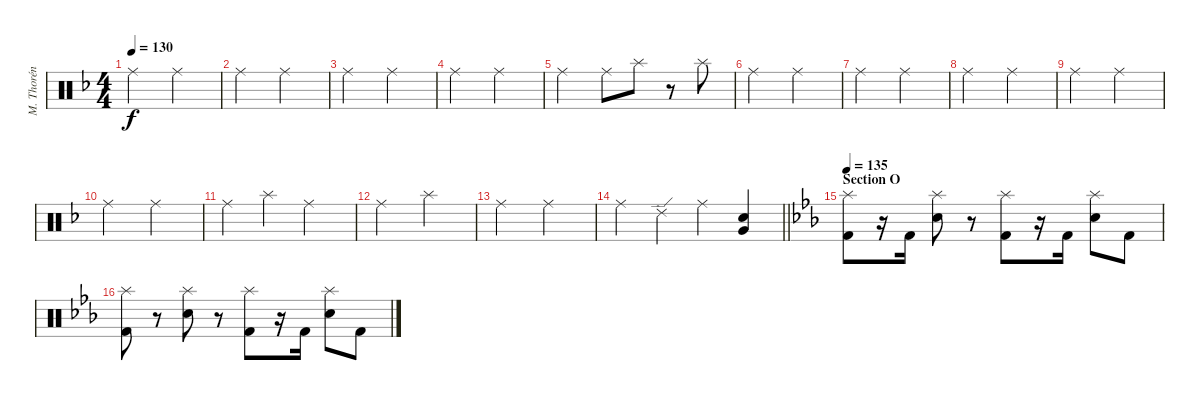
\track ("M. Thorén (Drums)" "M. Thorén ") {instrument percussion}
\staff {score}
\articulation defaults
\ts (4 4)
\tempo 130
\clef neutral
\ks dminor "Ride (middle)".2{dy f} "Ride (middle)".2
|
"Ride (middle)".2 "Ride (middle)".2 |
"Ride (middle)".2 "Ride (middle)".2 |
"Ride (middle)".2 "Ride (middle)".2 |
"Ride (middle)".2 "Ride (middle)".8 "Splash (hit)".8 r.8 "Splash (hit)".8 |
"Ride (middle)".2 "Ride (middle)".2 |
"Ride (middle)".2 "Ride (middle)".2 |
"Ride (middle)".2 "Ride (middle)".2 |
"Ride (middle)".2 "Ride (middle)".2 |
"Ride (middle)".2 "Ride (middle)".2 |
"Ride (middle)".4 "Splash (hit)".4 "Ride (middle)".2 |
"Ride (middle)".2 "Splash (hit)".2 |
"Ride (middle)".2 "Ride (middle)".2 |
\barLineRight lightlight "Ride (middle)".4 "Ride (edge) 2".4 "Ride (middle)".4
("Electric Snare (hit)" "Very Low Tom (hit)").4 |
\section ("" "Section O")
\tempo 135
\ks cminor
("Splash (hit)" "Kick (hit) 2").8 r.16 "Kick (hit) 2".16 ("Splash (hit)" "Electric Snare (hit)").8 r.8 ("Splash (hit)" "Kick (hit) 2").8 r.16 "Kick (hit) 2".16 ("Splash (hit)" "Electric Snare (hit)").8 "Kick (hit) 2".8 |
("Splash (hit)" "Kick (hit) 2").8 r.8 ("Splash (hit)" "Electric Snare (hit)").8 r.8 ("Splash (hit)" "Kick (hit) 2").8 r.16 "Kick (hit) 2".16 ("Splash (hit)" "Electric Snare (hit)").8 "Kick (hit) 2".8
